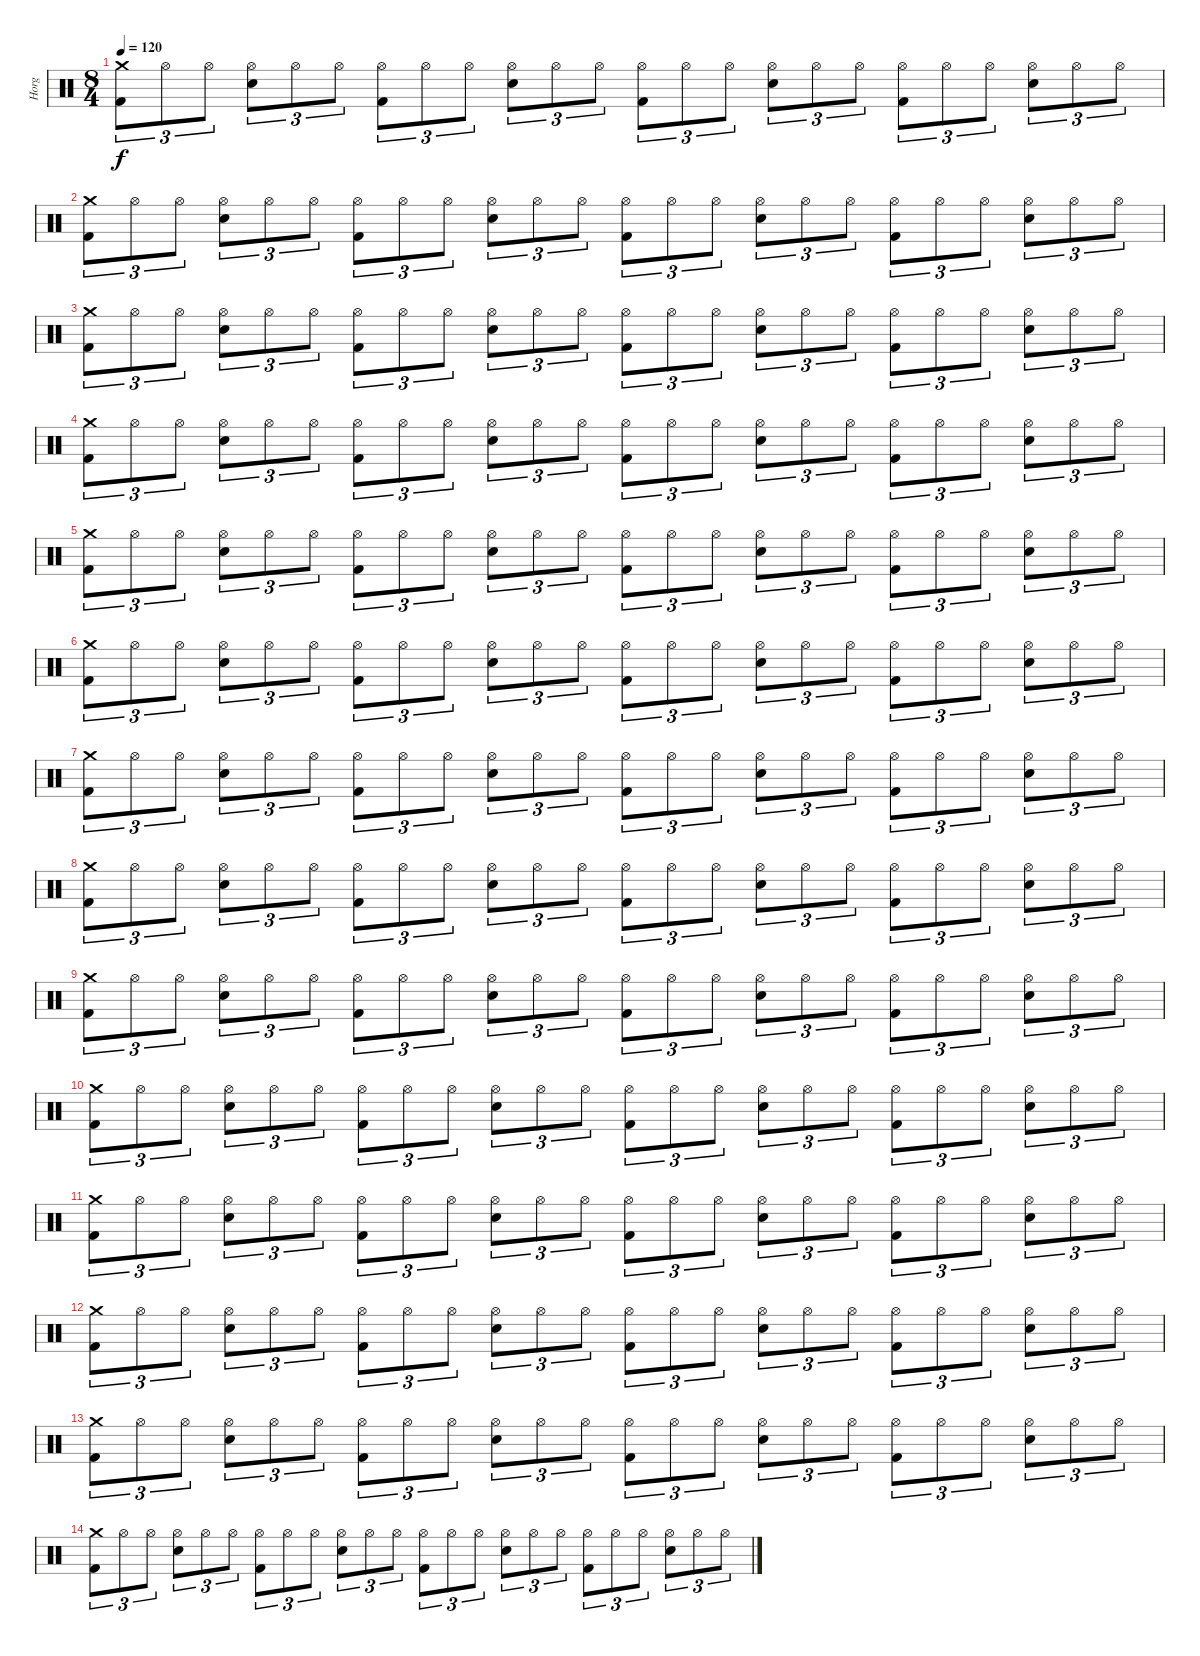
\track ("Horg" "Horg") {instrument percussion}
\staff {score}
\articulation defaults
\ts (8 4)
\tempo 120
\clef neutral
\ks c
("Crash medium (hit)" "Kick (hit) 2").8{tu (3 2) dy f} "Hi-Hat (open)".8{tu (3 2)} "Hi-Hat (open)".8{tu (3 2)} ("Hi-Hat (open)" "Snare (hit) 2").8{tu (3 2)} "Hi-Hat (open)".8{tu (3 2)} "Hi-Hat (open)".8{tu (3 2)} ("Hi-Hat (open)" "Kick (hit) 2").8{tu (3 2)} "Hi-Hat (open)".8{tu (3 2)} "Hi-Hat (open)".8{tu (3 2)} ("Hi-Hat (open)" "Snare (hit) 2").8{tu (3 2)} "Hi-Hat (open)".8{tu (3 2)} "Hi-Hat (open)".8{tu (3 2)} ("Hi-Hat (open)" "Kick (hit) 2").8{tu (3 2)} "Hi-Hat (open)".8{tu (3 2)} "Hi-Hat (open)".8{tu (3 2)} ("Hi-Hat (open)" "Snare (hit) 2").8{tu (3 2)} "Hi-Hat (open)".8{tu (3 2)} "Hi-Hat (open)".8{tu (3 2)} ("Hi-Hat (open)" "Kick (hit) 2").8{tu (3 2)} "Hi-Hat (open)".8{tu (3 2)} "Hi-Hat (open)".8{tu (3 2)} ("Hi-Hat (open)" "Snare (hit) 2").8{tu (3 2)} "Hi-Hat (open)".8{tu (3 2)} "Hi-Hat (open)".8{tu (3 2)} |
("Crash medium (hit)" "Kick (hit) 2").8{tu (3 2)} "Hi-Hat (open)".8{tu (3 2)} "Hi-Hat (open)".8{tu (3 2)} ("Hi-Hat (open)" "Snare (hit) 2").8{tu (3 2)} "Hi-Hat (open)".8{tu (3 2)} "Hi-Hat (open)".8{tu (3 2)} ("Hi-Hat (open)" "Kick (hit) 2").8{tu (3 2)} "Hi-Hat (open)".8{tu (3 2)} "Hi-Hat (open)".8{tu (3 2)} ("Hi-Hat (open)" "Snare (hit) 2").8{tu (3 2)} "Hi-Hat (open)".8{tu (3 2)} "Hi-Hat (open)".8{tu (3 2)} ("Hi-Hat (open)" "Kick (hit) 2").8{tu (3 2)} "Hi-Hat (open)".8{tu (3 2)} "Hi-Hat (open)".8{tu (3 2)} ("Hi-Hat (open)" "Snare (hit) 2").8{tu (3 2)} "Hi-Hat (open)".8{tu (3 2)} "Hi-Hat (open)".8{tu (3 2)} ("Hi-Hat (open)" "Kick (hit) 2").8{tu (3 2)} "Hi-Hat (open)".8{tu (3 2)} "Hi-Hat (open)".8{tu (3 2)} ("Hi-Hat (open)" "Snare (hit) 2").8{tu (3 2)} "Hi-Hat (open)".8{tu (3 2)} "Hi-Hat (open)".8{tu (3 2)} |
("Crash medium (hit)" "Kick (hit) 2").8{tu (3 2)} "Hi-Hat (open)".8{tu (3 2)} "Hi-Hat (open)".8{tu (3 2)} ("Hi-Hat (open)" "Snare (hit) 2").8{tu (3 2)} "Hi-Hat (open)".8{tu (3 2)} "Hi-Hat (open)".8{tu (3 2)} ("Hi-Hat (open)" "Kick (hit) 2").8{tu (3 2)} "Hi-Hat (open)".8{tu (3 2)} "Hi-Hat (open)".8{tu (3 2)} ("Hi-Hat (open)" "Snare (hit) 2").8{tu (3 2)} "Hi-Hat (open)".8{tu (3 2)} "Hi-Hat (open)".8{tu (3 2)} ("Hi-Hat (open)" "Kick (hit) 2").8{tu (3 2)} "Hi-Hat (open)".8{tu (3 2)} "Hi-Hat (open)".8{tu (3 2)} ("Hi-Hat (open)" "Snare (hit) 2").8{tu (3 2)} "Hi-Hat (open)".8{tu (3 2)} "Hi-Hat (open)".8{tu (3 2)} ("Hi-Hat (open)" "Kick (hit) 2").8{tu (3 2)} "Hi-Hat (open)".8{tu (3 2)} "Hi-Hat (open)".8{tu (3 2)} ("Hi-Hat (open)" "Snare (hit) 2").8{tu (3 2)} "Hi-Hat (open)".8{tu (3 2)} "Hi-Hat (open)".8{tu (3 2)} |
("Crash medium (hit)" "Kick (hit) 2").8{tu (3 2)} "Hi-Hat (open)".8{tu (3 2)} "Hi-Hat (open)".8{tu (3 2)} ("Hi-Hat (open)" "Snare (hit) 2").8{tu (3 2)} "Hi-Hat (open)".8{tu (3 2)} "Hi-Hat (open)".8{tu (3 2)} ("Hi-Hat (open)" "Kick (hit) 2").8{tu (3 2)} "Hi-Hat (open)".8{tu (3 2)} "Hi-Hat (open)".8{tu (3 2)} ("Hi-Hat (open)" "Snare (hit) 2").8{tu (3 2)} "Hi-Hat (open)".8{tu (3 2)} "Hi-Hat (open)".8{tu (3 2)} ("Hi-Hat (open)" "Kick (hit) 2").8{tu (3 2)} "Hi-Hat (open)".8{tu (3 2)} "Hi-Hat (open)".8{tu (3 2)} ("Hi-Hat (open)" "Snare (hit) 2").8{tu (3 2)} "Hi-Hat (open)".8{tu (3 2)} "Hi-Hat (open)".8{tu (3 2)} ("Hi-Hat (open)" "Kick (hit) 2").8{tu (3 2)} "Hi-Hat (open)".8{tu (3 2)} "Hi-Hat (open)".8{tu (3 2)} ("Hi-Hat (open)" "Snare (hit) 2").8{tu (3 2)} "Hi-Hat (open)".8{tu (3 2)} "Hi-Hat (open)".8{tu (3 2)} |
("Crash medium (hit)" "Kick (hit) 2").8{tu (3 2)} "Hi-Hat (open)".8{tu (3 2)} "Hi-Hat (open)".8{tu (3 2)} ("Hi-Hat (open)" "Snare (hit) 2").8{tu (3 2)} "Hi-Hat (open)".8{tu (3 2)} "Hi-Hat (open)".8{tu (3 2)} ("Hi-Hat (open)" "Kick (hit) 2").8{tu (3 2)} "Hi-Hat (open)".8{tu (3 2)} "Hi-Hat (open)".8{tu (3 2)} ("Hi-Hat (open)" "Snare (hit) 2").8{tu (3 2)} "Hi-Hat (open)".8{tu (3 2)} "Hi-Hat (open)".8{tu (3 2)} ("Hi-Hat (open)" "Kick (hit) 2").8{tu (3 2)} "Hi-Hat (open)".8{tu (3 2)} "Hi-Hat (open)".8{tu (3 2)} ("Hi-Hat (open)" "Snare (hit) 2").8{tu (3 2)} "Hi-Hat (open)".8{tu (3 2)} "Hi-Hat (open)".8{tu (3 2)} ("Hi-Hat (open)" "Kick (hit) 2").8{tu (3 2)} "Hi-Hat (open)".8{tu (3 2)} "Hi-Hat (open)".8{tu (3 2)} ("Hi-Hat (open)" "Snare (hit) 2").8{tu (3 2)} "Hi-Hat (open)".8{tu (3 2)} "Hi-Hat (open)".8{tu (3 2)} |
("Crash medium (hit)" "Kick (hit) 2").8{tu (3 2)} "Hi-Hat (open)".8{tu (3 2)} "Hi-Hat (open)".8{tu (3 2)} ("Hi-Hat (open)" "Snare (hit) 2").8{tu (3 2)} "Hi-Hat (open)".8{tu (3 2)} "Hi-Hat (open)".8{tu (3 2)} ("Hi-Hat (open)" "Kick (hit) 2").8{tu (3 2)} "Hi-Hat (open)".8{tu (3 2)} "Hi-Hat (open)".8{tu (3 2)} ("Hi-Hat (open)" "Snare (hit) 2").8{tu (3 2)} "Hi-Hat (open)".8{tu (3 2)} "Hi-Hat (open)".8{tu (3 2)} ("Hi-Hat (open)" "Kick (hit) 2").8{tu (3 2)} "Hi-Hat (open)".8{tu (3 2)} "Hi-Hat (open)".8{tu (3 2)} ("Hi-Hat (open)" "Snare (hit) 2").8{tu (3 2)} "Hi-Hat (open)".8{tu (3 2)} "Hi-Hat (open)".8{tu (3 2)} ("Hi-Hat (open)" "Kick (hit) 2").8{tu (3 2)} "Hi-Hat (open)".8{tu (3 2)} "Hi-Hat (open)".8{tu (3 2)} ("Hi-Hat (open)" "Snare (hit) 2").8{tu (3 2)} "Hi-Hat (open)".8{tu (3 2)} "Hi-Hat (open)".8{tu (3 2)} |
("Crash medium (hit)" "Kick (hit) 2").8{tu (3 2)} "Hi-Hat (open)".8{tu (3 2)} "Hi-Hat (open)".8{tu (3 2)} ("Hi-Hat (open)" "Snare (hit) 2").8{tu (3 2)} "Hi-Hat (open)".8{tu (3 2)} "Hi-Hat (open)".8{tu (3 2)} ("Hi-Hat (open)" "Kick (hit) 2").8{tu (3 2)} "Hi-Hat (open)".8{tu (3 2)} "Hi-Hat (open)".8{tu (3 2)} ("Hi-Hat (open)" "Snare (hit) 2").8{tu (3 2)} "Hi-Hat (open)".8{tu (3 2)} "Hi-Hat (open)".8{tu (3 2)} ("Hi-Hat (open)" "Kick (hit) 2").8{tu (3 2)} "Hi-Hat (open)".8{tu (3 2)} "Hi-Hat (open)".8{tu (3 2)} ("Hi-Hat (open)" "Snare (hit) 2").8{tu (3 2)} "Hi-Hat (open)".8{tu (3 2)} "Hi-Hat (open)".8{tu (3 2)} ("Hi-Hat (open)" "Kick (hit) 2").8{tu (3 2)} "Hi-Hat (open)".8{tu (3 2)} "Hi-Hat (open)".8{tu (3 2)} ("Hi-Hat (open)" "Snare (hit) 2").8{tu (3 2)} "Hi-Hat (open)".8{tu (3 2)} "Hi-Hat (open)".8{tu (3 2)} |
("Crash medium (hit)" "Kick (hit) 2").8{tu (3 2)} "Hi-Hat (open)".8{tu (3 2)} "Hi-Hat (open)".8{tu (3 2)} ("Hi-Hat (open)" "Snare (hit) 2").8{tu (3 2)} "Hi-Hat (open)".8{tu (3 2)} "Hi-Hat (open)".8{tu (3 2)} ("Hi-Hat (open)" "Kick (hit) 2").8{tu (3 2)} "Hi-Hat (open)".8{tu (3 2)} "Hi-Hat (open)".8{tu (3 2)} ("Hi-Hat (open)" "Snare (hit) 2").8{tu (3 2)} "Hi-Hat (open)".8{tu (3 2)} "Hi-Hat (open)".8{tu (3 2)} ("Hi-Hat (open)" "Kick (hit) 2").8{tu (3 2)} "Hi-Hat (open)".8{tu (3 2)} "Hi-Hat (open)".8{tu (3 2)} ("Hi-Hat (open)" "Snare (hit) 2").8{tu (3 2)} "Hi-Hat (open)".8{tu (3 2)} "Hi-Hat (open)".8{tu (3 2)} ("Hi-Hat (open)" "Kick (hit) 2").8{tu (3 2)} "Hi-Hat (open)".8{tu (3 2)} "Hi-Hat (open)".8{tu (3 2)} ("Hi-Hat (open)" "Snare (hit) 2").8{tu (3 2)} "Hi-Hat (open)".8{tu (3 2)} "Hi-Hat (open)".8{tu (3 2)} |
("Crash medium (hit)" "Kick (hit) 2").8{tu (3 2)} "Hi-Hat (open)".8{tu (3 2)} "Hi-Hat (open)".8{tu (3 2)} ("Hi-Hat (open)" "Snare (hit) 2").8{tu (3 2)} "Hi-Hat (open)".8{tu (3 2)} "Hi-Hat (open)".8{tu (3 2)} ("Hi-Hat (open)" "Kick (hit) 2").8{tu (3 2)} "Hi-Hat (open)".8{tu (3 2)} "Hi-Hat (open)".8{tu (3 2)} ("Hi-Hat (open)" "Snare (hit) 2").8{tu (3 2)} "Hi-Hat (open)".8{tu (3 2)} "Hi-Hat (open)".8{tu (3 2)} ("Hi-Hat (open)" "Kick (hit) 2").8{tu (3 2)} "Hi-Hat (open)".8{tu (3 2)} "Hi-Hat (open)".8{tu (3 2)} ("Hi-Hat (open)" "Snare (hit) 2").8{tu (3 2)} "Hi-Hat (open)".8{tu (3 2)} "Hi-Hat (open)".8{tu (3 2)} ("Hi-Hat (open)" "Kick (hit) 2").8{tu (3 2)} "Hi-Hat (open)".8{tu (3 2)} "Hi-Hat (open)".8{tu (3 2)} ("Hi-Hat (open)" "Snare (hit) 2").8{tu (3 2)} "Hi-Hat (open)".8{tu (3 2)} "Hi-Hat (open)".8{tu (3 2)} |
("Crash medium (hit)" "Kick (hit) 2").8{tu (3 2)} "Hi-Hat (open)".8{tu (3 2)} "Hi-Hat (open)".8{tu (3 2)} ("Hi-Hat (open)" "Snare (hit) 2").8{tu (3 2)} "Hi-Hat (open)".8{tu (3 2)} "Hi-Hat (open)".8{tu (3 2)} ("Hi-Hat (open)" "Kick (hit) 2").8{tu (3 2)} "Hi-Hat (open)".8{tu (3 2)} "Hi-Hat (open)".8{tu (3 2)} ("Hi-Hat (open)" "Snare (hit) 2").8{tu (3 2)} "Hi-Hat (open)".8{tu (3 2)} "Hi-Hat (open)".8{tu (3 2)} ("Hi-Hat (open)" "Kick (hit) 2").8{tu (3 2)} "Hi-Hat (open)".8{tu (3 2)} "Hi-Hat (open)".8{tu (3 2)} ("Hi-Hat (open)" "Snare (hit) 2").8{tu (3 2)} "Hi-Hat (open)".8{tu (3 2)} "Hi-Hat (open)".8{tu (3 2)} ("Hi-Hat (open)" "Kick (hit) 2").8{tu (3 2)} "Hi-Hat (open)".8{tu (3 2)} "Hi-Hat (open)".8{tu (3 2)} ("Hi-Hat (open)" "Snare (hit) 2").8{tu (3 2)} "Hi-Hat (open)".8{tu (3 2)} "Hi-Hat (open)".8{tu (3 2)} |
("Crash medium (hit)" "Kick (hit) 2").8{tu (3 2)} "Hi-Hat (open)".8{tu (3 2)} "Hi-Hat (open)".8{tu (3 2)} ("Hi-Hat (open)" "Snare (hit) 2").8{tu (3 2)} "Hi-Hat (open)".8{tu (3 2)} "Hi-Hat (open)".8{tu (3 2)} ("Hi-Hat (open)" "Kick (hit) 2").8{tu (3 2)} "Hi-Hat (open)".8{tu (3 2)} "Hi-Hat (open)".8{tu (3 2)} ("Hi-Hat (open)" "Snare (hit) 2").8{tu (3 2)} "Hi-Hat (open)".8{tu (3 2)} "Hi-Hat (open)".8{tu (3 2)} ("Hi-Hat (open)" "Kick (hit) 2").8{tu (3 2)} "Hi-Hat (open)".8{tu (3 2)} "Hi-Hat (open)".8{tu (3 2)} ("Hi-Hat (open)" "Snare (hit) 2").8{tu (3 2)} "Hi-Hat (open)".8{tu (3 2)} "Hi-Hat (open)".8{tu (3 2)} ("Hi-Hat (open)" "Kick (hit) 2").8{tu (3 2)} "Hi-Hat (open)".8{tu (3 2)} "Hi-Hat (open)".8{tu (3 2)} ("Hi-Hat (open)" "Snare (hit) 2").8{tu (3 2)} "Hi-Hat (open)".8{tu (3 2)} "Hi-Hat (open)".8{tu (3 2)} |
("Crash medium (hit)" "Kick (hit) 2").8{tu (3 2)} "Hi-Hat (open)".8{tu (3 2)} "Hi-Hat (open)".8{tu (3 2)} ("Hi-Hat (open)" "Snare (hit) 2").8{tu (3 2)} "Hi-Hat (open)".8{tu (3 2)} "Hi-Hat (open)".8{tu (3 2)} ("Hi-Hat (open)" "Kick (hit) 2").8{tu (3 2)} "Hi-Hat (open)".8{tu (3 2)} "Hi-Hat (open)".8{tu (3 2)} ("Hi-Hat (open)" "Snare (hit) 2").8{tu (3 2)} "Hi-Hat (open)".8{tu (3 2)} "Hi-Hat (open)".8{tu (3 2)} ("Hi-Hat (open)" "Kick (hit) 2").8{tu (3 2)} "Hi-Hat (open)".8{tu (3 2)} "Hi-Hat (open)".8{tu (3 2)} ("Hi-Hat (open)" "Snare (hit) 2").8{tu (3 2)} "Hi-Hat (open)".8{tu (3 2)} "Hi-Hat (open)".8{tu (3 2)} ("Hi-Hat (open)" "Kick (hit) 2").8{tu (3 2)} "Hi-Hat (open)".8{tu (3 2)} "Hi-Hat (open)".8{tu (3 2)} ("Hi-Hat (open)" "Snare (hit) 2").8{tu (3 2)} "Hi-Hat (open)".8{tu (3 2)} "Hi-Hat (open)".8{tu (3 2)} |
("Crash medium (hit)" "Kick (hit) 2").8{tu (3 2)} "Hi-Hat (open)".8{tu (3 2)} "Hi-Hat (open)".8{tu (3 2)} ("Hi-Hat (open)" "Snare (hit) 2").8{tu (3 2)} "Hi-Hat (open)".8{tu (3 2)} "Hi-Hat (open)".8{tu (3 2)} ("Hi-Hat (open)" "Kick (hit) 2").8{tu (3 2)} "Hi-Hat (open)".8{tu (3 2)} "Hi-Hat (open)".8{tu (3 2)} ("Hi-Hat (open)" "Snare (hit) 2").8{tu (3 2)} "Hi-Hat (open)".8{tu (3 2)} "Hi-Hat (open)".8{tu (3 2)} ("Hi-Hat (open)" "Kick (hit) 2").8{tu (3 2)} "Hi-Hat (open)".8{tu (3 2)} "Hi-Hat (open)".8{tu (3 2)} ("Hi-Hat (open)" "Snare (hit) 2").8{tu (3 2)} "Hi-Hat (open)".8{tu (3 2)} "Hi-Hat (open)".8{tu (3 2)} ("Hi-Hat (open)" "Kick (hit) 2").8{tu (3 2)} "Hi-Hat (open)".8{tu (3 2)} "Hi-Hat (open)".8{tu (3 2)} ("Hi-Hat (open)" "Snare (hit) 2").8{tu (3 2)} "Hi-Hat (open)".8{tu (3 2)} "Hi-Hat (open)".8{tu (3 2)} |
("Crash medium (hit)" "Kick (hit) 2").8{tu (3 2)} "Hi-Hat (open)".8{tu (3 2)} "Hi-Hat (open)".8{tu (3 2)} ("Hi-Hat (open)" "Snare (hit) 2").8{tu (3 2)} "Hi-Hat (open)".8{tu (3 2)} "Hi-Hat (open)".8{tu (3 2)} ("Hi-Hat (open)" "Kick (hit) 2").8{tu (3 2)} "Hi-Hat (open)".8{tu (3 2)} "Hi-Hat (open)".8{tu (3 2)} ("Hi-Hat (open)" "Snare (hit) 2").8{tu (3 2)} "Hi-Hat (open)".8{tu (3 2)} "Hi-Hat (open)".8{tu (3 2)} ("Hi-Hat (open)" "Kick (hit) 2").8{tu (3 2)} "Hi-Hat (open)".8{tu (3 2)} "Hi-Hat (open)".8{tu (3 2)} ("Hi-Hat (open)" "Snare (hit) 2").8{tu (3 2)} "Hi-Hat (open)".8{tu (3 2)} "Hi-Hat (open)".8{tu (3 2)} ("Hi-Hat (open)" "Kick (hit) 2").8{tu (3 2)} "Hi-Hat (open)".8{tu (3 2)} "Hi-Hat (open)".8{tu (3 2)} ("Hi-Hat (open)" "Snare (hit) 2").8{tu (3 2)} "Hi-Hat (open)".8{tu (3 2)} "Hi-Hat (open)".8{tu (3 2)}
